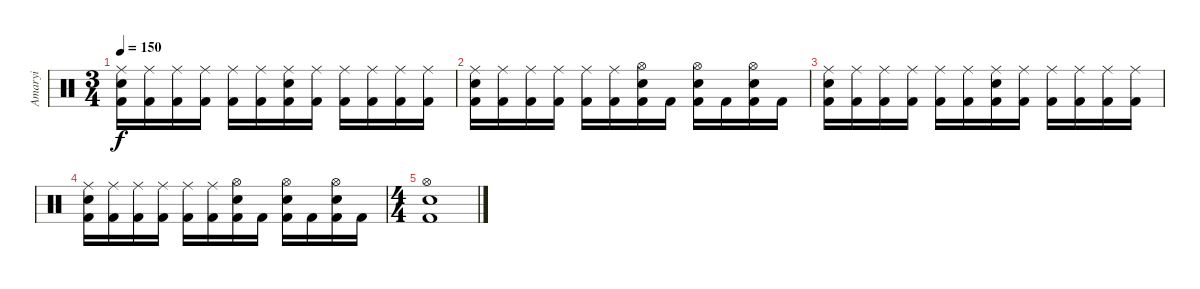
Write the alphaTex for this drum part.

\track ("Amaryi" "Amaryi") {instrument percussion}
\staff {score}
\articulation defaults
\ts (3 4)
\tempo 150
\clef neutral
\ks c
("Ride (middle)" "Snare (hit) 2" "Kick (hit) 2").16{dy f} ("Ride (middle)" "Kick (hit) 2").16 ("Ride (middle)" "Kick (hit) 2").16 ("Ride (middle)" "Kick (hit) 2").16 ("Ride (middle)" "Kick (hit) 2").16 ("Ride (middle)" "Kick (hit) 2").16 ("Ride (middle)" "Snare (hit) 2" "Kick (hit) 2").16 ("Ride (middle)" "Kick (hit) 2").16 ("Ride (middle)" "Kick (hit) 2").16 ("Ride (middle)" "Kick (hit) 2").16 ("Ride (middle)" "Kick (hit) 2").16 ("Ride (middle)" "Kick (hit) 2").16 |
("Ride (middle)" "Snare (hit) 2" "Kick (hit) 2").16 ("Ride (middle)" "Kick (hit) 2").16 ("Ride (middle)" "Kick (hit) 2").16 ("Ride (middle)" "Kick (hit) 2").16 ("Ride (middle)" "Kick (hit) 2").16 ("Ride (middle)" "Kick (hit) 2").16 ("Hi-Hat (open)" "Snare (hit) 2" "Kick (hit) 2").16 "Kick (hit) 2".16 ("Hi-Hat (open)" "Snare (hit) 2" "Kick (hit) 2").16 "Kick (hit) 2".16 ("Hi-Hat (open)" "Snare (hit) 2" "Kick (hit) 2").16 "Kick (hit) 2".16 |
("Ride (middle)" "Snare (hit) 2" "Kick (hit) 2").16 ("Ride (middle)" "Kick (hit) 2").16 ("Ride (middle)" "Kick (hit) 2").16 ("Ride (middle)" "Kick (hit) 2").16 ("Ride (middle)" "Kick (hit) 2").16 ("Ride (middle)" "Kick (hit) 2").16 ("Ride (middle)" "Snare (hit) 2" "Kick (hit) 2").16 ("Ride (middle)" "Kick (hit) 2").16 ("Ride (middle)" "Kick (hit) 2").16 ("Ride (middle)" "Kick (hit) 2").16 ("Ride (middle)" "Kick (hit) 2").16 ("Ride (middle)" "Kick (hit) 2").16 |
("Ride (middle)" "Snare (hit) 2" "Kick (hit) 2").16 ("Ride (middle)" "Kick (hit) 2").16 ("Ride (middle)" "Kick (hit) 2").16 ("Ride (middle)" "Kick (hit) 2").16 ("Ride (middle)" "Kick (hit) 2").16 ("Ride (middle)" "Kick (hit) 2").16 ("Hi-Hat (open)" "Snare (hit) 2" "Kick (hit) 2").16 "Kick (hit) 2".16 ("Hi-Hat (open)" "Snare (hit) 2" "Kick (hit) 2").16 "Kick (hit) 2".16 ("Hi-Hat (open)" "Snare (hit) 2" "Kick (hit) 2").16 "Kick (hit) 2".16 |
\ts (4 4)
("Hi-Hat (open)" "Snare (hit) 2" "Kick (hit) 2").1
